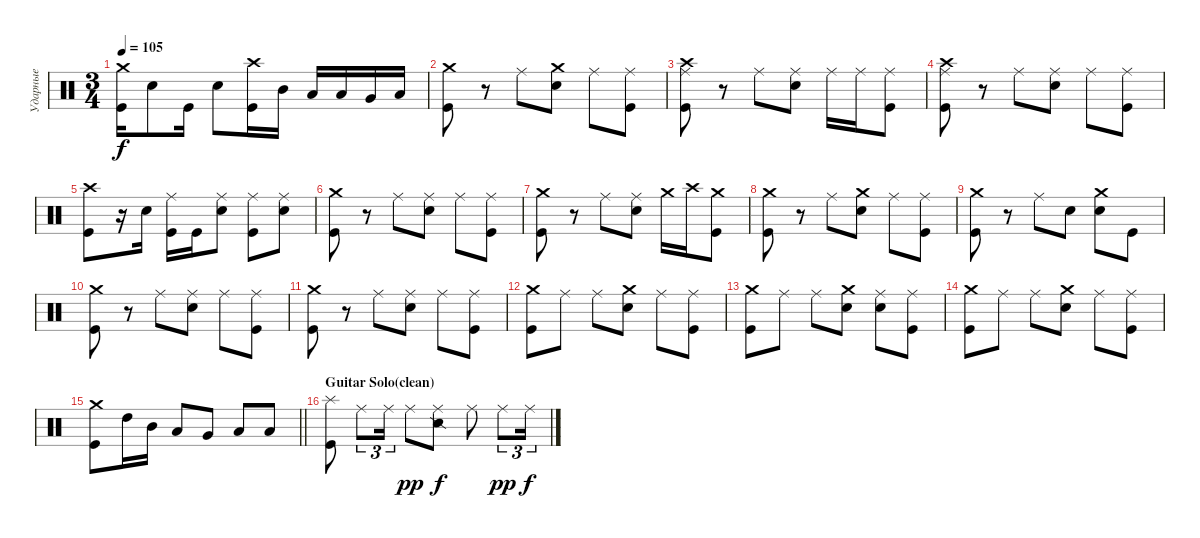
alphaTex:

\track ("Ударные" "Ударные") {instrument percussion}
\staff {score}
\articulation defaults
\ts (3 4)
\tempo 105
\clef neutral
\ks c
("Crash medium (hit)" "Kick (hit)").16{dy f} "Electric Snare (hit)".8 "Kick (hit)".16 "Electric Snare (hit)".8 ("Crash high (hit)" "Kick (hit)").16 "Mid Tom (hit)".16 "Low Tom (hit)".16 "Low Tom (hit)".16 "Very Low Tom (hit)".16 "Low Floor Tom (hit)".16 |
("Crash medium (hit)" "Kick (hit)").8 r.8 "Ride (middle)".8 ("Crash medium (hit)" "Electric Snare (hit)").8 "Ride (middle)".8 ("Ride (middle)" "Kick (hit)").8 |
("Crash high (hit)" "Ride (middle)" "Kick (hit)").8 r.8 "Ride (middle)".8 ("Ride (middle)" "Electric Snare (hit)").8 "Ride (middle)".16 "Ride (middle)".16 ("Ride (middle)" "Kick (hit)").8 |
("Crash high (hit)" "Ride (middle)" "Kick (hit)").8 r.8 "Ride (middle)".8 ("Ride (middle)" "Electric Snare (hit)").8 "Ride (middle)".8 ("Ride (middle)" "Kick (hit)").8 |
("Crash high (hit)" "Kick (hit)").8 r.16 "Electric Snare (hit)".16 ("Ride (middle)" "Kick (hit)").16 "Kick (hit)".16 ("Ride (middle)" "Electric Snare (hit)").8 ("Ride (middle)" "Kick (hit)").8 ("Ride (middle)" "Electric Snare (hit)").8 |
("Crash medium (hit)" "Kick (hit)").8 r.8 "Ride (middle)".8 ("Ride (middle)" "Electric Snare (hit)").8 "Ride (middle)".8 ("Ride (middle)" "Kick (hit)").8 |
("Crash medium (hit)" "Kick (hit)").8 r.8 "Ride (middle)".8 ("Ride (middle)" "Electric Snare (hit)").8 "Crash medium (hit)".16 "Crash high (hit)".16 ("Crash medium (hit)" "Kick (hit)").8 |
("Crash medium (hit)" "Kick (hit)").8 r.8 "Ride (middle)".8 ("Crash medium (hit)" "Electric Snare (hit)").8 "Ride (middle)".8 ("Ride (middle)" "Kick (hit)").8 |
("Crash medium (hit)" "Kick (hit)").8 r.8 "Ride (middle)".8 "Electric Snare (hit)".8 ("Crash medium (hit)" "Electric Snare (hit)").8 "Kick (hit)".8 |
("Crash medium (hit)" "Kick (hit)").8 r.8 "Ride (middle)".8 ("Ride (middle)" "Electric Snare (hit)").8 "Ride (middle)".8 ("Ride (middle)" "Kick (hit)").8 |
("Crash medium (hit)" "Kick (hit)").8 r.8 "Ride (middle)".8 ("Ride (middle)" "Electric Snare (hit)").8 "Ride (middle)".8 ("Ride (middle)" "Kick (hit)").8 |
("Crash medium (hit)" "Kick (hit)").8 "Ride (middle)".8 "Ride (middle)".8 ("Crash medium (hit)" "Electric Snare (hit)").8 "Ride (middle)".8 ("Ride (middle)" "Kick (hit)").8 |
("Crash medium (hit)" "Kick (hit)").8 "Ride (middle)".8 "Ride (middle)".8 ("Crash medium (hit)" "Electric Snare (hit)").8 ("Ride (middle)" "Electric Snare (hit)").8 ("Ride (middle)" "Kick (hit)").8 |
("Crash medium (hit)" "Kick (hit)").8 "Ride (middle)".8 "Ride (middle)".8 ("Crash medium (hit)" "Electric Snare (hit)").8 "Ride (middle)".8 ("Ride (middle)" "Kick (hit)").8 |
\barLineRight lightlight
("Crash medium (hit)" "Kick (hit)").8 "High Tom (hit)".16 "Mid Tom (hit)".16 "Low Tom (hit)".8 "Very Low Tom (hit)".8 "Low Floor Tom (hit)".8 "Low Floor Tom (hit)".8 |
\section ("" "Guitar Solo(clean)")
("Splash (hit)" "Kick (hit)").8 "Ride (middle)".8{tu (3 2)} "Ride (middle)".16{tu (3 2)} "Ride (middle)".8{dy pp} ("Ride (middle)" "Snare (side stick) 2").8{dy f} "Ride (middle)".8 "Ride (middle)".8{tu (3 2) dy pp} "Ride (middle)".16{tu (3 2) dy f}
